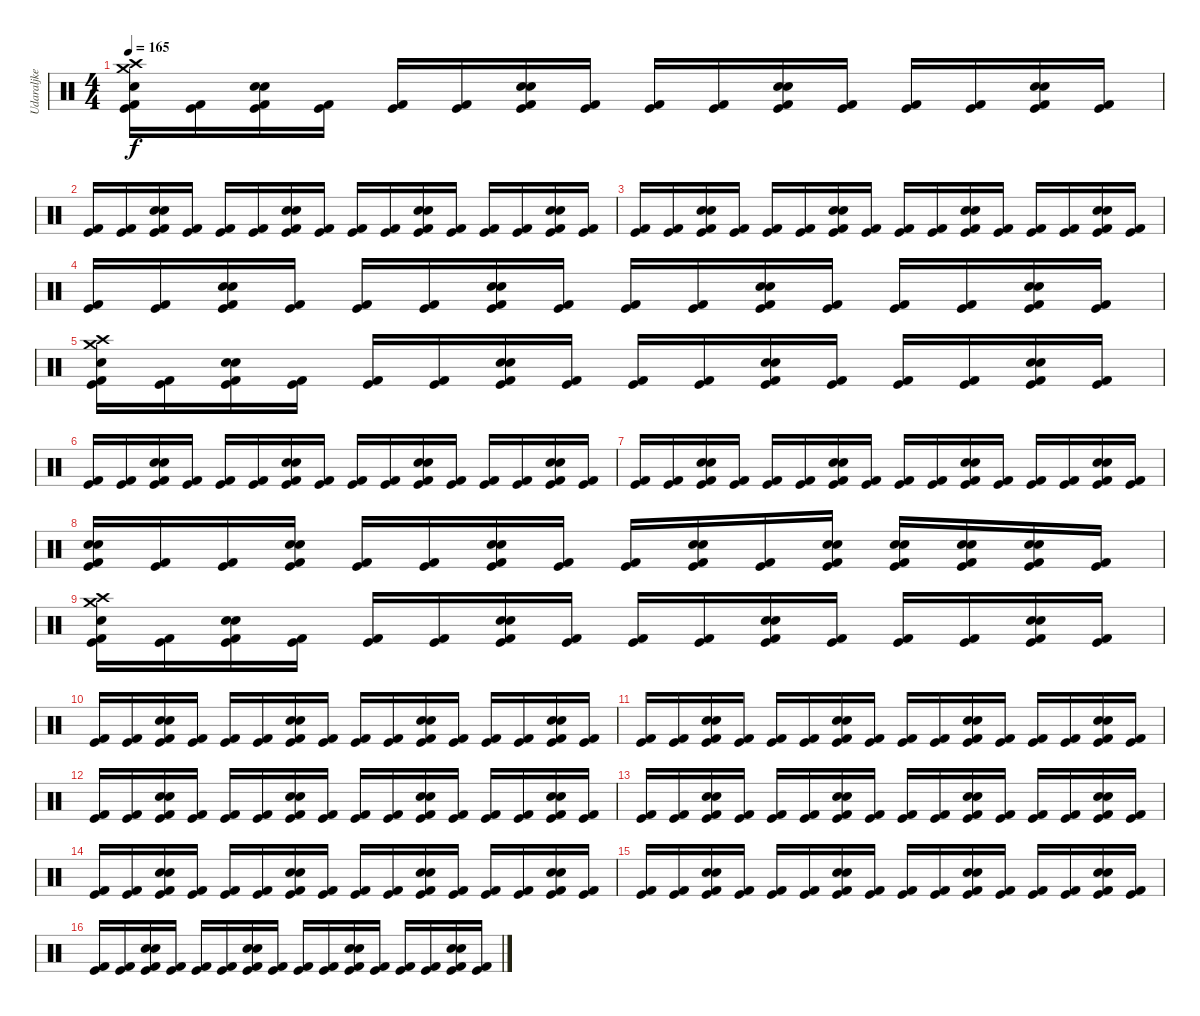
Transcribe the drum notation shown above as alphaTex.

\track ("Udaraljke" "Udaraljke") {instrument percussion}
\staff {score}
\articulation defaults
\ts (4 4)
\tempo 165
\clef neutral
\ks c
("Crash medium (hit)" "Crash high (hit)" "Snare (hit) 2" "Kick (hit) 2" "Kick (hit)").16{dy f} ("Kick (hit) 2" "Kick (hit)").16 ("Snare (hit) 2" "Snare (hit) 2" "Kick (hit) 2" "Kick (hit)").16 ("Kick (hit) 2" "Kick (hit)").16 ("Kick (hit) 2" "Kick (hit)").16 ("Kick (hit) 2" "Kick (hit)").16 ("Snare (hit) 2" "Snare (hit) 2" "Kick (hit) 2" "Kick (hit)").16 ("Kick (hit) 2" "Kick (hit)").16 ("Kick (hit) 2" "Kick (hit)").16 ("Kick (hit) 2" "Kick (hit)").16 ("Snare (hit) 2" "Snare (hit) 2" "Kick (hit) 2" "Kick (hit)").16 ("Kick (hit) 2" "Kick (hit)").16 ("Kick (hit) 2" "Kick (hit)").16 ("Kick (hit) 2" "Kick (hit)").16 ("Snare (hit) 2" "Snare (hit) 2" "Kick (hit) 2" "Kick (hit)").16 ("Kick (hit) 2" "Kick (hit)").16 |
("Kick (hit) 2" "Kick (hit)").16 ("Kick (hit) 2" "Kick (hit)").16 ("Snare (hit) 2" "Snare (hit) 2" "Kick (hit) 2" "Kick (hit)").16 ("Kick (hit) 2" "Kick (hit)").16 ("Kick (hit) 2" "Kick (hit)").16 ("Kick (hit) 2" "Kick (hit)").16 ("Snare (hit) 2" "Snare (hit) 2" "Kick (hit) 2" "Kick (hit)").16 ("Kick (hit) 2" "Kick (hit)").16 ("Kick (hit) 2" "Kick (hit)").16 ("Kick (hit) 2" "Kick (hit)").16 ("Snare (hit) 2" "Snare (hit) 2" "Kick (hit) 2" "Kick (hit)").16 ("Kick (hit) 2" "Kick (hit)").16 ("Kick (hit) 2" "Kick (hit)").16 ("Kick (hit) 2" "Kick (hit)").16 ("Snare (hit) 2" "Snare (hit) 2" "Kick (hit) 2" "Kick (hit)").16 ("Kick (hit) 2" "Kick (hit)").16 |
("Kick (hit) 2" "Kick (hit)").16 ("Kick (hit) 2" "Kick (hit)").16 ("Snare (hit) 2" "Snare (hit) 2" "Kick (hit) 2" "Kick (hit)").16 ("Kick (hit) 2" "Kick (hit)").16 ("Kick (hit) 2" "Kick (hit)").16 ("Kick (hit) 2" "Kick (hit)").16 ("Snare (hit) 2" "Snare (hit) 2" "Kick (hit) 2" "Kick (hit)").16 ("Kick (hit) 2" "Kick (hit)").16 ("Kick (hit) 2" "Kick (hit)").16 ("Kick (hit) 2" "Kick (hit)").16 ("Snare (hit) 2" "Snare (hit) 2" "Kick (hit) 2" "Kick (hit)").16 ("Kick (hit) 2" "Kick (hit)").16 ("Kick (hit) 2" "Kick (hit)").16 ("Kick (hit) 2" "Kick (hit)").16 ("Snare (hit) 2" "Snare (hit) 2" "Kick (hit) 2" "Kick (hit)").16 ("Kick (hit) 2" "Kick (hit)").16 |
("Kick (hit) 2" "Kick (hit)").16 ("Kick (hit) 2" "Kick (hit)").16 ("Snare (hit) 2" "Snare (hit) 2" "Kick (hit) 2" "Kick (hit)").16 ("Kick (hit) 2" "Kick (hit)").16 ("Kick (hit) 2" "Kick (hit)").16 ("Kick (hit) 2" "Kick (hit)").16 ("Snare (hit) 2" "Snare (hit) 2" "Kick (hit) 2" "Kick (hit)").16 ("Kick (hit) 2" "Kick (hit)").16 ("Kick (hit) 2" "Kick (hit)").16 ("Kick (hit) 2" "Kick (hit)").16 ("Snare (hit) 2" "Snare (hit) 2" "Kick (hit) 2" "Kick (hit)").16 ("Kick (hit) 2" "Kick (hit)").16 ("Kick (hit) 2" "Kick (hit)").16 ("Kick (hit) 2" "Kick (hit)").16 ("Snare (hit) 2" "Snare (hit) 2" "Kick (hit) 2" "Kick (hit)").16 ("Kick (hit) 2" "Kick (hit)").16 |
("Crash medium (hit)" "Crash high (hit)" "Snare (hit) 2" "Kick (hit) 2" "Kick (hit)").16 ("Kick (hit) 2" "Kick (hit)").16 ("Snare (hit) 2" "Snare (hit) 2" "Kick (hit) 2" "Kick (hit)").16 ("Kick (hit) 2" "Kick (hit)").16 ("Kick (hit) 2" "Kick (hit)").16 ("Kick (hit) 2" "Kick (hit)").16 ("Snare (hit) 2" "Snare (hit) 2" "Kick (hit) 2" "Kick (hit)").16 ("Kick (hit) 2" "Kick (hit)").16 ("Kick (hit) 2" "Kick (hit)").16 ("Kick (hit) 2" "Kick (hit)").16 ("Snare (hit) 2" "Snare (hit) 2" "Kick (hit) 2" "Kick (hit)").16 ("Kick (hit) 2" "Kick (hit)").16 ("Kick (hit) 2" "Kick (hit)").16 ("Kick (hit) 2" "Kick (hit)").16 ("Snare (hit) 2" "Snare (hit) 2" "Kick (hit) 2" "Kick (hit)").16 ("Kick (hit) 2" "Kick (hit)").16 |
("Kick (hit) 2" "Kick (hit)").16 ("Kick (hit) 2" "Kick (hit)").16 ("Snare (hit) 2" "Snare (hit) 2" "Kick (hit) 2" "Kick (hit)").16 ("Kick (hit) 2" "Kick (hit)").16 ("Kick (hit) 2" "Kick (hit)").16 ("Kick (hit) 2" "Kick (hit)").16 ("Snare (hit) 2" "Snare (hit) 2" "Kick (hit) 2" "Kick (hit)").16 ("Kick (hit) 2" "Kick (hit)").16 ("Kick (hit) 2" "Kick (hit)").16 ("Kick (hit) 2" "Kick (hit)").16 ("Snare (hit) 2" "Snare (hit) 2" "Kick (hit) 2" "Kick (hit)").16 ("Kick (hit) 2" "Kick (hit)").16 ("Kick (hit) 2" "Kick (hit)").16 ("Kick (hit) 2" "Kick (hit)").16 ("Snare (hit) 2" "Snare (hit) 2" "Kick (hit) 2" "Kick (hit)").16 ("Kick (hit) 2" "Kick (hit)").16 |
("Kick (hit) 2" "Kick (hit)").16 ("Kick (hit) 2" "Kick (hit)").16 ("Snare (hit) 2" "Snare (hit) 2" "Kick (hit) 2" "Kick (hit)").16 ("Kick (hit) 2" "Kick (hit)").16 ("Kick (hit) 2" "Kick (hit)").16 ("Kick (hit) 2" "Kick (hit)").16 ("Snare (hit) 2" "Snare (hit) 2" "Kick (hit) 2" "Kick (hit)").16 ("Kick (hit) 2" "Kick (hit)").16 ("Kick (hit) 2" "Kick (hit)").16 ("Kick (hit) 2" "Kick (hit)").16 ("Snare (hit) 2" "Snare (hit) 2" "Kick (hit) 2" "Kick (hit)").16 ("Kick (hit) 2" "Kick (hit)").16 ("Kick (hit) 2" "Kick (hit)").16 ("Kick (hit) 2" "Kick (hit)").16 ("Snare (hit) 2" "Snare (hit) 2" "Kick (hit) 2" "Kick (hit)").16 ("Kick (hit) 2" "Kick (hit)").16 |
("Snare (hit) 2" "Snare (hit) 2" "Kick (hit) 2" "Kick (hit)").16 ("Kick (hit) 2" "Kick (hit)").16 ("Kick (hit) 2" "Kick (hit)").16 ("Snare (hit) 2" "Snare (hit) 2" "Kick (hit) 2" "Kick (hit)").16 ("Kick (hit) 2" "Kick (hit)").16 ("Kick (hit) 2" "Kick (hit)").16 ("Snare (hit) 2" "Snare (hit) 2" "Kick (hit) 2" "Kick (hit)").16 ("Kick (hit) 2" "Kick (hit)").16 ("Kick (hit) 2" "Kick (hit)").16 ("Snare (hit) 2" "Snare (hit) 2" "Kick (hit) 2" "Kick (hit)").16 ("Kick (hit) 2" "Kick (hit)").16 ("Snare (hit) 2" "Snare (hit) 2" "Kick (hit) 2" "Kick (hit)").16 ("Snare (hit) 2" "Snare (hit) 2" "Kick (hit) 2" "Kick (hit)").16 ("Snare (hit) 2" "Snare (hit) 2" "Kick (hit) 2" "Kick (hit)").16 ("Snare (hit) 2" "Snare (hit) 2" "Kick (hit) 2" "Kick (hit)").16 ("Kick (hit) 2" "Kick (hit)").16 |
("Crash medium (hit)" "Crash high (hit)" "Snare (hit) 2" "Kick (hit) 2" "Kick (hit)").16 ("Kick (hit) 2" "Kick (hit)").16 ("Snare (hit) 2" "Snare (hit) 2" "Kick (hit) 2" "Kick (hit)").16 ("Kick (hit) 2" "Kick (hit)").16 ("Kick (hit) 2" "Kick (hit)").16 ("Kick (hit) 2" "Kick (hit)").16 ("Snare (hit) 2" "Snare (hit) 2" "Kick (hit) 2" "Kick (hit)").16 ("Kick (hit) 2" "Kick (hit)").16 ("Kick (hit) 2" "Kick (hit)").16 ("Kick (hit) 2" "Kick (hit)").16 ("Snare (hit) 2" "Snare (hit) 2" "Kick (hit) 2" "Kick (hit)").16 ("Kick (hit) 2" "Kick (hit)").16 ("Kick (hit) 2" "Kick (hit)").16 ("Kick (hit) 2" "Kick (hit)").16 ("Snare (hit) 2" "Snare (hit) 2" "Kick (hit) 2" "Kick (hit)").16 ("Kick (hit) 2" "Kick (hit)").16 |
("Kick (hit) 2" "Kick (hit)").16 ("Kick (hit) 2" "Kick (hit)").16 ("Snare (hit) 2" "Snare (hit) 2" "Kick (hit) 2" "Kick (hit)").16 ("Kick (hit) 2" "Kick (hit)").16 ("Kick (hit) 2" "Kick (hit)").16 ("Kick (hit) 2" "Kick (hit)").16 ("Snare (hit) 2" "Snare (hit) 2" "Kick (hit) 2" "Kick (hit)").16 ("Kick (hit) 2" "Kick (hit)").16 ("Kick (hit) 2" "Kick (hit)").16 ("Kick (hit) 2" "Kick (hit)").16 ("Snare (hit) 2" "Snare (hit) 2" "Kick (hit) 2" "Kick (hit)").16 ("Kick (hit) 2" "Kick (hit)").16 ("Kick (hit) 2" "Kick (hit)").16 ("Kick (hit) 2" "Kick (hit)").16 ("Snare (hit) 2" "Snare (hit) 2" "Kick (hit) 2" "Kick (hit)").16 ("Kick (hit) 2" "Kick (hit)").16 |
("Kick (hit) 2" "Kick (hit)").16 ("Kick (hit) 2" "Kick (hit)").16 ("Snare (hit) 2" "Snare (hit) 2" "Kick (hit) 2" "Kick (hit)").16 ("Kick (hit) 2" "Kick (hit)").16 ("Kick (hit) 2" "Kick (hit)").16 ("Kick (hit) 2" "Kick (hit)").16 ("Snare (hit) 2" "Snare (hit) 2" "Kick (hit) 2" "Kick (hit)").16 ("Kick (hit) 2" "Kick (hit)").16 ("Kick (hit) 2" "Kick (hit)").16 ("Kick (hit) 2" "Kick (hit)").16 ("Snare (hit) 2" "Snare (hit) 2" "Kick (hit) 2" "Kick (hit)").16 ("Kick (hit) 2" "Kick (hit)").16 ("Kick (hit) 2" "Kick (hit)").16 ("Kick (hit) 2" "Kick (hit)").16 ("Snare (hit) 2" "Snare (hit) 2" "Kick (hit) 2" "Kick (hit)").16 ("Kick (hit) 2" "Kick (hit)").16 |
("Kick (hit) 2" "Kick (hit)").16 ("Kick (hit) 2" "Kick (hit)").16 ("Snare (hit) 2" "Snare (hit) 2" "Kick (hit) 2" "Kick (hit)").16 ("Kick (hit) 2" "Kick (hit)").16 ("Kick (hit) 2" "Kick (hit)").16 ("Kick (hit) 2" "Kick (hit)").16 ("Snare (hit) 2" "Snare (hit) 2" "Kick (hit) 2" "Kick (hit)").16 ("Kick (hit) 2" "Kick (hit)").16 ("Kick (hit) 2" "Kick (hit)").16 ("Kick (hit) 2" "Kick (hit)").16 ("Snare (hit) 2" "Snare (hit) 2" "Kick (hit) 2" "Kick (hit)").16 ("Kick (hit) 2" "Kick (hit)").16 ("Kick (hit) 2" "Kick (hit)").16 ("Kick (hit) 2" "Kick (hit)").16 ("Snare (hit) 2" "Snare (hit) 2" "Kick (hit) 2" "Kick (hit)").16 ("Kick (hit) 2" "Kick (hit)").16 |
("Kick (hit) 2" "Kick (hit)").16 ("Kick (hit) 2" "Kick (hit)").16 ("Snare (hit) 2" "Snare (hit) 2" "Kick (hit) 2" "Kick (hit)").16 ("Kick (hit) 2" "Kick (hit)").16 ("Kick (hit) 2" "Kick (hit)").16 ("Kick (hit) 2" "Kick (hit)").16 ("Snare (hit) 2" "Snare (hit) 2" "Kick (hit) 2" "Kick (hit)").16 ("Kick (hit) 2" "Kick (hit)").16 ("Kick (hit) 2" "Kick (hit)").16 ("Kick (hit) 2" "Kick (hit)").16 ("Snare (hit) 2" "Snare (hit) 2" "Kick (hit) 2" "Kick (hit)").16 ("Kick (hit) 2" "Kick (hit)").16 ("Kick (hit) 2" "Kick (hit)").16 ("Kick (hit) 2" "Kick (hit)").16 ("Snare (hit) 2" "Snare (hit) 2" "Kick (hit) 2" "Kick (hit)").16 ("Kick (hit) 2" "Kick (hit)").16 |
("Kick (hit) 2" "Kick (hit)").16 ("Kick (hit) 2" "Kick (hit)").16 ("Snare (hit) 2" "Snare (hit) 2" "Kick (hit) 2" "Kick (hit)").16 ("Kick (hit) 2" "Kick (hit)").16 ("Kick (hit) 2" "Kick (hit)").16 ("Kick (hit) 2" "Kick (hit)").16 ("Snare (hit) 2" "Snare (hit) 2" "Kick (hit) 2" "Kick (hit)").16 ("Kick (hit) 2" "Kick (hit)").16 ("Kick (hit) 2" "Kick (hit)").16 ("Kick (hit) 2" "Kick (hit)").16 ("Snare (hit) 2" "Snare (hit) 2" "Kick (hit) 2" "Kick (hit)").16 ("Kick (hit) 2" "Kick (hit)").16 ("Kick (hit) 2" "Kick (hit)").16 ("Kick (hit) 2" "Kick (hit)").16 ("Snare (hit) 2" "Snare (hit) 2" "Kick (hit) 2" "Kick (hit)").16 ("Kick (hit) 2" "Kick (hit)").16 |
("Kick (hit) 2" "Kick (hit)").16 ("Kick (hit) 2" "Kick (hit)").16 ("Snare (hit) 2" "Snare (hit) 2" "Kick (hit) 2" "Kick (hit)").16 ("Kick (hit) 2" "Kick (hit)").16 ("Kick (hit) 2" "Kick (hit)").16 ("Kick (hit) 2" "Kick (hit)").16 ("Snare (hit) 2" "Snare (hit) 2" "Kick (hit) 2" "Kick (hit)").16 ("Kick (hit) 2" "Kick (hit)").16 ("Kick (hit) 2" "Kick (hit)").16 ("Kick (hit) 2" "Kick (hit)").16 ("Snare (hit) 2" "Snare (hit) 2" "Kick (hit) 2" "Kick (hit)").16 ("Kick (hit) 2" "Kick (hit)").16 ("Kick (hit) 2" "Kick (hit)").16 ("Kick (hit) 2" "Kick (hit)").16 ("Snare (hit) 2" "Snare (hit) 2" "Kick (hit) 2" "Kick (hit)").16 ("Kick (hit) 2" "Kick (hit)").16 |
("Kick (hit) 2" "Kick (hit)").16 ("Kick (hit) 2" "Kick (hit)").16 ("Snare (hit) 2" "Snare (hit) 2" "Kick (hit) 2" "Kick (hit)").16 ("Kick (hit) 2" "Kick (hit)").16 ("Kick (hit) 2" "Kick (hit)").16 ("Kick (hit) 2" "Kick (hit)").16 ("Snare (hit) 2" "Snare (hit) 2" "Kick (hit) 2" "Kick (hit)").16 ("Kick (hit) 2" "Kick (hit)").16 ("Kick (hit) 2" "Kick (hit)").16 ("Kick (hit) 2" "Kick (hit)").16 ("Snare (hit) 2" "Snare (hit) 2" "Kick (hit) 2" "Kick (hit)").16 ("Kick (hit) 2" "Kick (hit)").16 ("Kick (hit) 2" "Kick (hit)").16 ("Kick (hit) 2" "Kick (hit)").16 ("Snare (hit) 2" "Snare (hit) 2" "Kick (hit) 2" "Kick (hit)").16 ("Kick (hit) 2" "Kick (hit)").16
